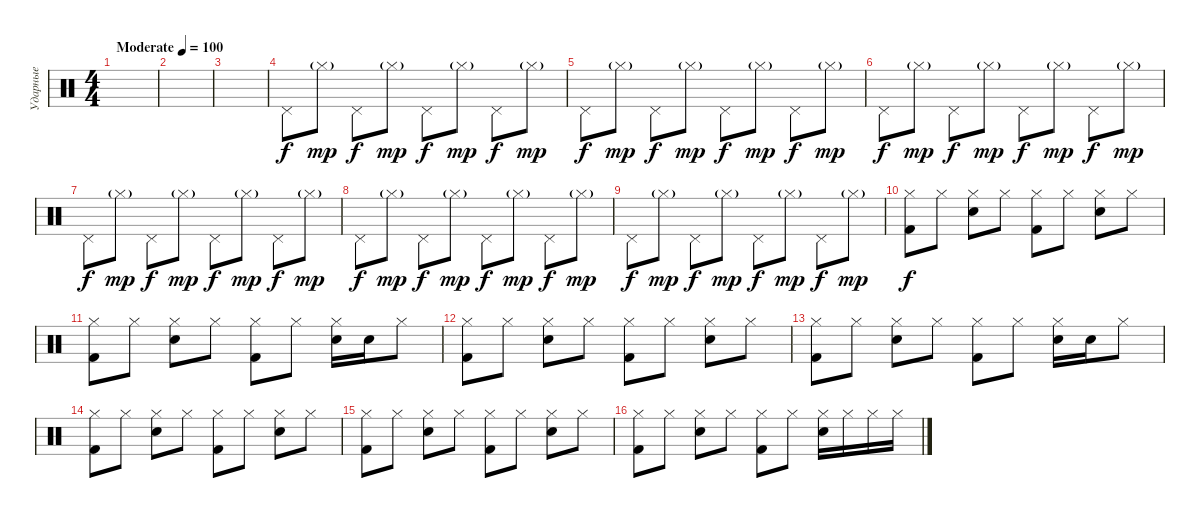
\track ("Ударные" "Ударные") {instrument percussion}
\staff {score}
\articulation defaults
\ts (4 4)
\tempo (100 "Moderate")
\clef neutral
\ks c
|
|
|
"Pedal Hi-Hat (hit)".8 "Hi-Hat (closed)"{g}.8{dy mp} "Pedal Hi-Hat (hit)".8{dy f} "Hi-Hat (closed)"{g}.8{dy mp} "Pedal Hi-Hat (hit)".8{dy f} "Hi-Hat (closed)"{g}.8{dy mp} "Pedal Hi-Hat (hit)".8{dy f} "Hi-Hat (closed)"{g}.8{dy mp} |
"Pedal Hi-Hat (hit)".8{dy f} "Hi-Hat (closed)"{g}.8{dy mp} "Pedal Hi-Hat (hit)".8{dy f} "Hi-Hat (closed)"{g}.8{dy mp} "Pedal Hi-Hat (hit)".8{dy f} "Hi-Hat (closed)"{g}.8{dy mp} "Pedal Hi-Hat (hit)".8{dy f} "Hi-Hat (closed)"{g}.8{dy mp} |
"Pedal Hi-Hat (hit)".8{dy f} "Hi-Hat (closed)"{g}.8{dy mp} "Pedal Hi-Hat (hit)".8{dy f} "Hi-Hat (closed)"{g}.8{dy mp} "Pedal Hi-Hat (hit)".8{dy f} "Hi-Hat (closed)"{g}.8{dy mp} "Pedal Hi-Hat (hit)".8{dy f} "Hi-Hat (closed)"{g}.8{dy mp} |
"Pedal Hi-Hat (hit)".8{dy f} "Hi-Hat (closed)"{g}.8{dy mp} "Pedal Hi-Hat (hit)".8{dy f} "Hi-Hat (closed)"{g}.8{dy mp} "Pedal Hi-Hat (hit)".8{dy f} "Hi-Hat (closed)"{g}.8{dy mp} "Pedal Hi-Hat (hit)".8{dy f} "Hi-Hat (closed)"{g}.8{dy mp} |
"Pedal Hi-Hat (hit)".8{dy f} "Hi-Hat (closed)"{g}.8{dy mp} "Pedal Hi-Hat (hit)".8{dy f} "Hi-Hat (closed)"{g}.8{dy mp} "Pedal Hi-Hat (hit)".8{dy f} "Hi-Hat (closed)"{g}.8{dy mp} "Pedal Hi-Hat (hit)".8{dy f} "Hi-Hat (closed)"{g}.8{dy mp} |
"Pedal Hi-Hat (hit)".8{dy f} "Hi-Hat (closed)"{g}.8{dy mp} "Pedal Hi-Hat (hit)".8{dy f} "Hi-Hat (closed)"{g}.8{dy mp} "Pedal Hi-Hat (hit)".8{dy f} "Hi-Hat (closed)"{g}.8{dy mp} "Pedal Hi-Hat (hit)".8{dy f} "Hi-Hat (closed)"{g}.8{dy mp} |
("Hi-Hat (closed)" "Kick (hit) 2").8{dy f} "Hi-Hat (closed)".8 ("Electric Snare (hit)" "Hi-Hat (closed)").8 "Hi-Hat (closed)".8 ("Hi-Hat (closed)" "Kick (hit) 2").8 "Hi-Hat (closed)".8 ("Electric Snare (hit)" "Hi-Hat (closed)").8 "Hi-Hat (closed)".8 |
("Hi-Hat (closed)" "Kick (hit) 2").8 "Hi-Hat (closed)".8 ("Electric Snare (hit)" "Hi-Hat (closed)").8 "Hi-Hat (closed)".8 ("Hi-Hat (closed)" "Kick (hit) 2").8 "Hi-Hat (closed)".8 ("Electric Snare (hit)" "Hi-Hat (closed)").16 "Electric Snare (hit)".16 "Hi-Hat (closed)".8 |
("Hi-Hat (closed)" "Kick (hit) 2").8 "Hi-Hat (closed)".8 ("Electric Snare (hit)" "Hi-Hat (closed)").8 "Hi-Hat (closed)".8 ("Hi-Hat (closed)" "Kick (hit) 2").8 "Hi-Hat (closed)".8 ("Electric Snare (hit)" "Hi-Hat (closed)").8 "Hi-Hat (closed)".8 |
("Hi-Hat (closed)" "Kick (hit) 2").8 "Hi-Hat (closed)".8 ("Electric Snare (hit)" "Hi-Hat (closed)").8 "Hi-Hat (closed)".8 ("Hi-Hat (closed)" "Kick (hit) 2").8 "Hi-Hat (closed)".8 ("Electric Snare (hit)" "Hi-Hat (closed)").16 "Electric Snare (hit)".16 "Hi-Hat (closed)".8 |
("Hi-Hat (closed)" "Kick (hit) 2").8 "Hi-Hat (closed)".8 ("Electric Snare (hit)" "Hi-Hat (closed)").8 "Hi-Hat (closed)".8 ("Hi-Hat (closed)" "Kick (hit) 2").8 "Hi-Hat (closed)".8 ("Electric Snare (hit)" "Hi-Hat (closed)").8 "Hi-Hat (closed)".8 |
("Hi-Hat (closed)" "Kick (hit) 2").8 "Hi-Hat (closed)".8 ("Electric Snare (hit)" "Hi-Hat (closed)").8 "Hi-Hat (closed)".8 ("Hi-Hat (closed)" "Kick (hit) 2").8 "Hi-Hat (closed)".8 ("Electric Snare (hit)" "Hi-Hat (closed)").8 "Hi-Hat (closed)".8 |
("Hi-Hat (closed)" "Kick (hit) 2").8 "Hi-Hat (closed)".8 ("Electric Snare (hit)" "Hi-Hat (closed)").8 "Hi-Hat (closed)".8 ("Hi-Hat (closed)" "Kick (hit) 2").8 "Hi-Hat (closed)".8 ("Electric Snare (hit)" "Hi-Hat (closed)").16 "Hi-Hat (closed)".16 "Hi-Hat (closed)".16 "Hi-Hat (closed)".16
